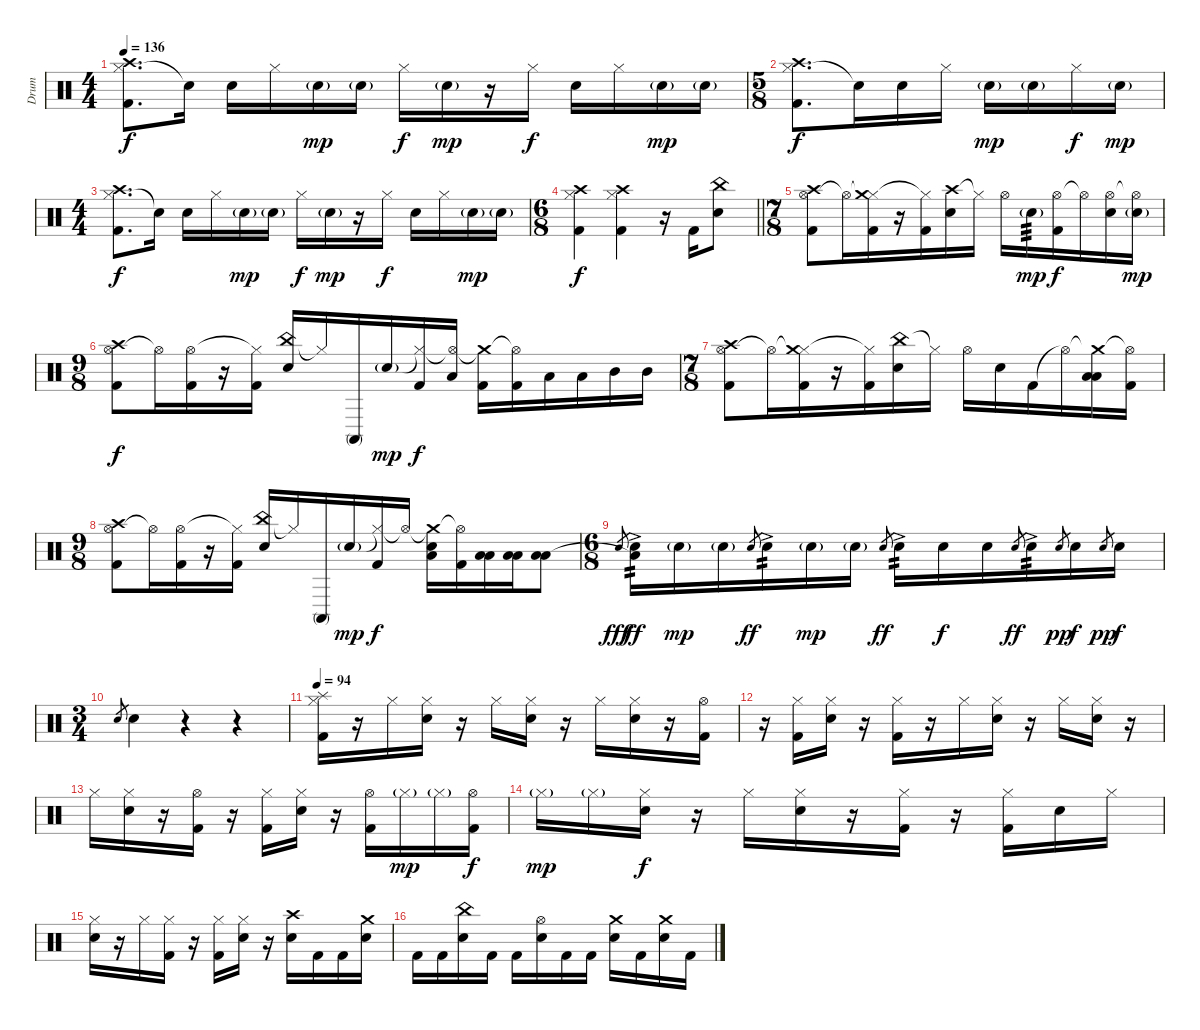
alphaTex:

\track ("Drum" "Drum") {instrument percussion}
\staff {score}
\articulation defaults
\ts (4 4)
\tempo 136
\clef neutral
\ks c
("Hi-Hat (closed)" "Crash high (hit)" "Kick (hit) 2").8{d dy f} "Electric Snare (hit)"{t}.16 "Electric Snare (hit)".16 "Hi-Hat (closed)".16 "Electric Snare (hit)"{g}.16{dy mp} "Electric Snare (hit)"{g}.16 "Hi-Hat (closed)".16{dy f} "Electric Snare (hit)"{g}.16{dy mp} r.16 "Hi-Hat (closed)".16{dy f} "Electric Snare (hit)".16 "Hi-Hat (closed)".16 "Electric Snare (hit)"{g}.16{dy mp} "Electric Snare (hit)"{g}.16 |
\ts (5 8)
("Hi-Hat (closed)" "Crash high (hit)" "Kick (hit) 2").8{d dy f} "Electric Snare (hit)"{t}.16 "Electric Snare (hit)".16 "Hi-Hat (closed)".16 "Electric Snare (hit)"{g}.16{dy mp} "Electric Snare (hit)"{g}.16 "Hi-Hat (closed)".16{dy f} "Electric Snare (hit)"{g}.16{dy mp} |
\ts (4 4)
("Hi-Hat (closed)" "Crash high (hit)" "Kick (hit) 2").8{d dy f} "Electric Snare (hit)"{t}.16 "Electric Snare (hit)".16 "Hi-Hat (closed)".16 "Electric Snare (hit)"{g}.16{dy mp} "Electric Snare (hit)"{g}.16 "Hi-Hat (closed)".16{dy f} "Electric Snare (hit)"{g}.16{dy mp} r.16 "Hi-Hat (closed)".16{dy f} "Electric Snare (hit)".16 "Hi-Hat (closed)".16 "Electric Snare (hit)"{g}.16{dy mp} "Electric Snare (hit)"{g}.16 |
\ts (6 8)
\barLineRight lightlight
("Hi-Hat (closed)" "Crash high (hit)" "Kick (hit) 2").4{dy f} ("Hi-Hat (closed)" "Crash high (hit)" "Kick (hit) 2").4 r.16 "Kick (hit) 2".16 ("China (hit)" "Electric Snare (hit)").8 |
\ts (7 8)
("Hi-Hat (open)" "Crash high (hit)" "Kick (hit) 2").8 "Hi-Hat (open)"{t}.16 ("Hi-Hat (closed)"{t} "Crash medium (hit)" "Kick (hit) 2").16 r.16 ("Hi-Hat (closed)"{t} "Kick (hit) 2").16 ("Crash high (hit)" "Electric Snare (hit)").16 "Hi-Hat (closed)"{t}.16 "Hi-Hat (open)".16 "Electric Snare (hit)"{g}.16{tp 3 dy mp} ("Hi-Hat (open)" "Kick (hit) 2").16{dy f} "Hi-Hat (open)"{t}.16 ("Hi-Hat (open)" "Electric Snare (hit)").16 ("Hi-Hat (open)"{t} "Electric Snare (hit)"{g}).16{dy mp} |
\ts (9 8)
("Hi-Hat (open)" "Crash high (hit)" "Kick (hit) 2").8{dy f} "Hi-Hat (open)"{t}.16 ("Hi-Hat (open)" "Kick (hit) 2").16 r.16 ("Hi-Hat (closed)"{t} "Kick (hit) 2").16 ("China (hit)" "Electric Snare (hit)").16 "Hi-Hat (closed)"{t}.16 "Conga high (mute)".16 "Electric Snare (hit)"{g}.16{dy mp} ("Hi-Hat (closed)"{t} "Kick (hit) 2").16{dy f} ("Hi-Hat (open)"{t} "Low Floor Tom (hit)").16 ("Crash medium (hit)"{t} "Kick (hit) 2").16 ("Hi-Hat (open)"{t} "Kick (hit) 2").16 "Low Tom (hit)".16 "Low Tom (hit)".16 "Mid Tom (hit)".16 "Mid Tom (hit)".16 |
\ts (7 8)
("Hi-Hat (open)" "Crash high (hit)" "Kick (hit) 2").8 "Hi-Hat (open)"{t}.16 ("Hi-Hat (closed)"{t} "Crash medium (hit)" "Kick (hit) 2").16 r.16 ("Hi-Hat (closed)"{t} "Kick (hit) 2").16 ("China (hit)" "Electric Snare (hit)").16 "Hi-Hat (closed)"{t}.16 "Hi-Hat (open)".16 "Electric Snare (hit)".16 "Kick (hit) 2".16 "Hi-Hat (open)"{t}.16 ("Crash medium (hit)"{t} "Low Tom (hit)" "Low Floor Tom (hit)").16 ("Hi-Hat (open)"{t} "Kick (hit) 2").16 |
\ts (9 8)
("Hi-Hat (open)" "Crash high (hit)" "Kick (hit) 2").8 "Hi-Hat (open)"{t}.16 ("Hi-Hat (open)" "Kick (hit) 2").16 r.16 ("Hi-Hat (closed)"{t} "Kick (hit) 2").16 ("China (hit)" "Electric Snare (hit)").16 "Hi-Hat (closed)"{t}.16 "Conga high (mute)".16 "Electric Snare (hit)"{g}.16{dy mp} ("Hi-Hat (closed)"{t} "Kick (hit) 2").16{dy f} "Hi-Hat (open)"{t}.16 ("Crash medium (hit)"{t} "Low Tom (hit)" "Electric Snare (hit)").16 ("Hi-Hat (open)"{t} "Kick (hit) 2").16 ("Low Tom (hit)" "Low Floor Tom (hit)").16 ("Low Tom (hit)" "Low Floor Tom (hit)").16 ("Low Floor Tom (hit)" "Low Floor Tom (hit)").8 |
\ts (6 8)
"Electric Snare (hit)".8{gr dy fff} ("Electric Snare (hit)"{ac} "Low Floor Tom (hit)"{t}).16{tp 2 dy ff} "Electric Snare (hit)"{g}.16{dy mp} "Electric Snare (hit)"{g}.16 "Electric Snare (hit)".8{gr dy ff} "Electric Snare (hit)"{ac}.16{tp 2} "Electric Snare (hit)"{g}.16{dy mp} "Electric Snare (hit)"{g}.16 "Electric Snare (hit)".8{gr dy ff} "Electric Snare (hit)"{ac}.16{tp 2} "Electric Snare (hit)".16{dy f} "Electric Snare (hit)".16 "Electric Snare (hit)".8{gr dy ff} "Electric Snare (hit)"{ac}.16{tp 2} "Electric Snare (hit)".8{gr dy pp} "Electric Snare (hit)".16{dy f} "Electric Snare (hit)".8{gr dy pp} "Electric Snare (hit)".16{dy f} |
\ts (3 4)
"Electric Snare (hit)".8{gr} "Electric Snare (hit)".4 r.4 r.4 |
\tempo 94
("Hi-Hat (closed)" "Splash (hit)" "Kick (hit) 2").16 r.16 "Hi-Hat (closed)".16 ("Hi-Hat (closed)" "Electric Snare (hit)").16 r.16 "Hi-Hat (closed)".16 ("Hi-Hat (closed)" "Electric Snare (hit)").16 r.16 "Hi-Hat (closed)".16 ("Hi-Hat (closed)" "Electric Snare (hit)").16 r.16 ("Hi-Hat (open)" "Kick (hit) 2").16 |
r.16 ("Hi-Hat (closed)" "Kick (hit) 2").16 ("Hi-Hat (closed)" "Electric Snare (hit)").16 r.16 ("Hi-Hat (closed)" "Kick (hit) 2").16 r.16 "Hi-Hat (closed)".16 ("Hi-Hat (closed)" "Electric Snare (hit)").16 r.16 "Hi-Hat (closed)".16 ("Hi-Hat (closed)" "Electric Snare (hit)").16 r.16 |
"Hi-Hat (closed)".16 ("Hi-Hat (closed)" "Electric Snare (hit)").16 r.16 ("Hi-Hat (open)" "Kick (hit) 2").16 r.16 ("Hi-Hat (closed)" "Kick (hit) 2").16 ("Hi-Hat (closed)" "Electric Snare (hit)").16 r.16 ("Hi-Hat (open)" "Kick (hit) 2").16 "Hi-Hat (closed)"{g}.16{dy mp} "Hi-Hat (closed)"{g}.16 ("Hi-Hat (open)" "Kick (hit) 2").16{dy f} |
"Hi-Hat (closed)"{g}.16{dy mp} "Hi-Hat (closed)"{g}.16 ("Hi-Hat (closed)" "Electric Snare (hit)").16{dy f} r.16 "Hi-Hat (closed)".16 ("Hi-Hat (closed)" "Electric Snare (hit)").16 r.16 ("Hi-Hat (closed)" "Kick (hit) 2").16 r.16 ("Hi-Hat (closed)" "Kick (hit) 2").16 "Electric Snare (hit)".16 "Hi-Hat (closed)".16 |
("Hi-Hat (closed)" "Electric Snare (hit)").16 r.16 "Hi-Hat (closed)".16 ("Hi-Hat (closed)" "Kick (hit) 2").16 r.16 ("Hi-Hat (closed)" "Kick (hit) 2").16 ("Hi-Hat (closed)" "Electric Snare (hit)").16 r.16 ("Crash high (hit)" "Electric Snare (hit)").16 "Kick (hit) 2".16 "Kick (hit) 2".16 ("Crash medium (hit)" "Electric Snare (hit)").16 |
"Kick (hit) 2".16 "Kick (hit) 2".16 ("China (hit)" "Electric Snare (hit)").16 "Kick (hit) 2".16 "Kick (hit) 2".16 ("Hi-Hat (open)" "Electric Snare (hit)").16 "Kick (hit) 2".16 "Kick (hit) 2".16 ("Crash medium (hit)" "Electric Snare (hit)").16 "Kick (hit) 2".16 ("Crash medium (hit)" "Electric Snare (hit)").16 "Kick (hit) 2".16
